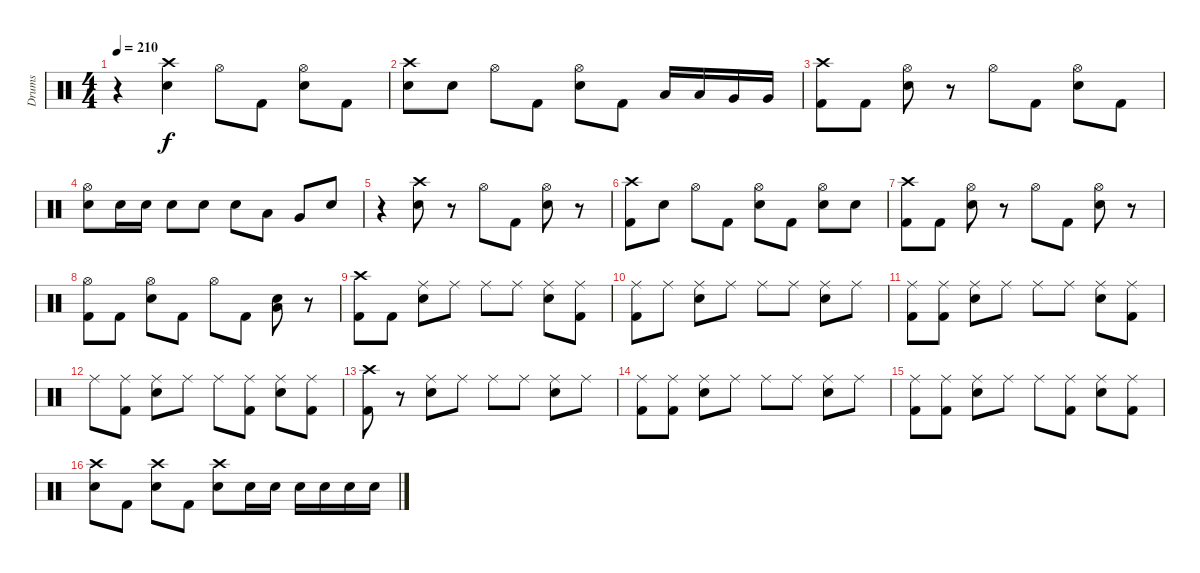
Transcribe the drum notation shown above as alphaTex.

\track ("Drums" "Drums") {instrument percussion}
\staff {score}
\articulation defaults
\ts (4 4)
\tempo 210
\clef neutral
\ks c
r.4{dy f} ("Crash high (hit)" "Electric Snare (hit)").4 "Hi-Hat (open)".8 "Kick (hit) 2".8 ("Hi-Hat (open)" "Electric Snare (hit)").8 "Kick (hit) 2".8 |
("Crash high (hit)" "Electric Snare (hit)").8 "Electric Snare (hit)".8 "Hi-Hat (open)".8 "Kick (hit) 2".8 ("Hi-Hat (open)" "Electric Snare (hit)").8 "Kick (hit) 2".8 "Low Tom (hit)".16 "Low Tom (hit)".16 "Very Low Tom (hit)".16 "Very Low Tom (hit)".16 |
("Crash high (hit)" "Kick (hit) 2").8 "Kick (hit) 2".8 ("Hi-Hat (open)" "Electric Snare (hit)").8 r.8 "Hi-Hat (open)".8 "Kick (hit) 2".8 ("Hi-Hat (open)" "Electric Snare (hit)").8 "Kick (hit) 2".8 |
("Hi-Hat (open)" "Electric Snare (hit)").8 "Electric Snare (hit)".16 "Electric Snare (hit)".16 "Electric Snare (hit)".8 "Electric Snare (hit)".8 "Electric Snare (hit)".8 "Low Tom (hit)".8 "Very Low Tom (hit)".8 "Electric Snare (hit)".8 |
r.4 ("Crash high (hit)" "Electric Snare (hit)").8 r.8 "Hi-Hat (open)".8 "Kick (hit) 2".8 ("Hi-Hat (open)" "Electric Snare (hit)").8 r.8 |
("Crash high (hit)" "Kick (hit) 2").8 "Electric Snare (hit)".8 "Hi-Hat (open)".8 "Kick (hit) 2".8 ("Hi-Hat (open)" "Electric Snare (hit)").8 "Kick (hit) 2".8 ("Hi-Hat (open)" "Electric Snare (hit)").8 "Electric Snare (hit)".8 |
("Crash high (hit)" "Kick (hit) 2").8 "Kick (hit) 2".8 ("Hi-Hat (open)" "Electric Snare (hit)").8 r.8 "Hi-Hat (open)".8 "Kick (hit) 2".8 ("Hi-Hat (open)" "Electric Snare (hit)").8 r.8 |
("Hi-Hat (open)" "Kick (hit) 2").8 "Kick (hit) 2".8 ("Hi-Hat (open)" "Electric Snare (hit)").8 "Kick (hit) 2".8 "Hi-Hat (open)".8 "Kick (hit) 2".8 ("Electric Snare (hit)" "Low Tom (hit)").8 r.8 |
("Crash high (hit)" "Kick (hit) 2").8 "Kick (hit) 2".8 ("Ride (middle)" "Electric Snare (hit)").8 "Ride (middle)".8 "Ride (middle)".8 "Ride (middle)".8 ("Ride (middle)" "Electric Snare (hit)").8 ("Ride (middle)" "Kick (hit) 2").8 |
("Ride (middle)" "Kick (hit) 2").8 "Ride (middle)".8 ("Ride (middle)" "Electric Snare (hit)").8 "Ride (middle)".8 "Ride (middle)".8 "Ride (middle)".8 ("Ride (middle)" "Electric Snare (hit)").8 "Ride (middle)".8 |
("Ride (middle)" "Kick (hit) 2").8 ("Ride (middle)" "Kick (hit) 2").8 ("Ride (middle)" "Electric Snare (hit)").8 "Ride (middle)".8 "Ride (middle)".8 "Ride (middle)".8 ("Ride (middle)" "Electric Snare (hit)").8 ("Ride (middle)" "Kick (hit) 2").8 |
"Ride (middle)".8 ("Ride (middle)" "Kick (hit) 2").8 ("Ride (middle)" "Electric Snare (hit)").8 "Ride (middle)".8 "Ride (middle)".8 ("Ride (middle)" "Kick (hit) 2").8 ("Ride (middle)" "Electric Snare (hit)").8 ("Ride (middle)" "Kick (hit) 2").8 |
("Crash high (hit)" "Kick (hit) 2").8 r.8 ("Ride (middle)" "Electric Snare (hit)").8 "Ride (middle)".8 "Ride (middle)".8 "Ride (middle)".8 ("Ride (middle)" "Electric Snare (hit)").8 "Ride (middle)".8 |
("Ride (middle)" "Kick (hit) 2").8 ("Ride (middle)" "Kick (hit) 2").8 ("Ride (middle)" "Electric Snare (hit)").8 "Ride (middle)".8 "Ride (middle)".8 "Ride (middle)".8 ("Ride (middle)" "Electric Snare (hit)").8 "Ride (middle)".8 |
("Ride (middle)" "Kick (hit) 2").8 ("Ride (middle)" "Kick (hit) 2").8 ("Ride (middle)" "Electric Snare (hit)").8 "Ride (middle)".8 "Ride (middle)".8 ("Ride (middle)" "Kick (hit) 2").8 ("Ride (middle)" "Electric Snare (hit)").8 ("Ride (middle)" "Kick (hit) 2").8 |
("Crash high (hit)" "Snare (hit) 2").8 "Kick (hit) 2".8 ("Crash high (hit)" "Electric Snare (hit)").8 "Kick (hit) 2".8 ("Crash high (hit)" "Electric Snare (hit)").8 "Electric Snare (hit)".16 "Electric Snare (hit)".16 "Electric Snare (hit)".16 "Electric Snare (hit)".16 "Electric Snare (hit)".16 "Electric Snare (hit)".16
